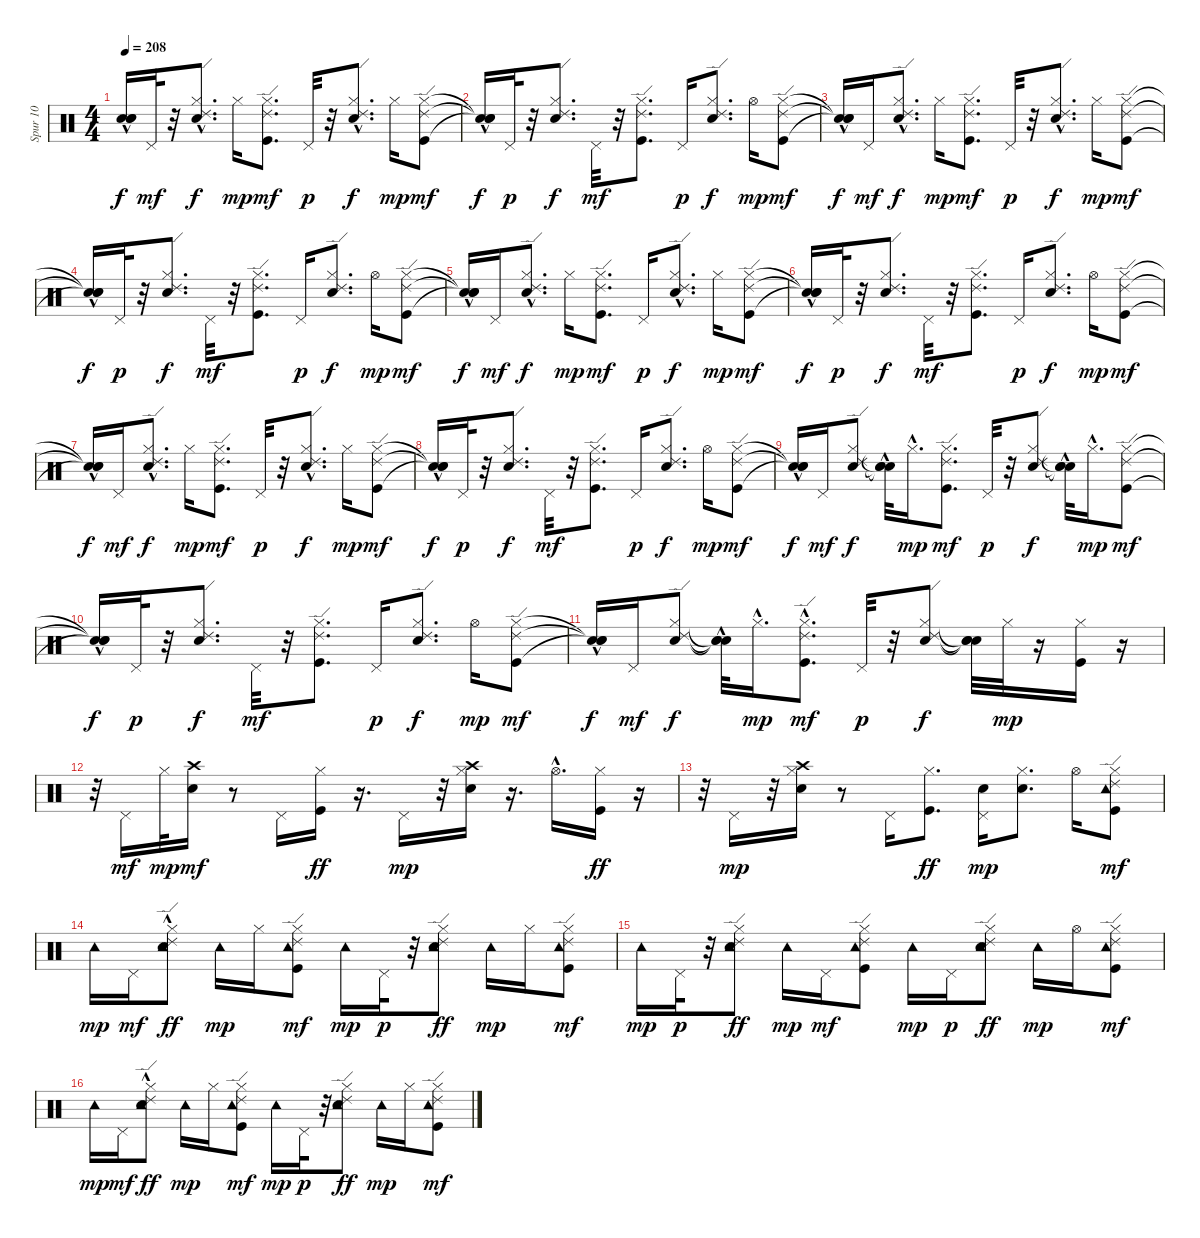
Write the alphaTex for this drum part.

\track ("Spur 10" "Spur 10") {instrument percussion}
\staff {score}
\articulation defaults
\ts (4 4)
\tempo 208
\clef neutral
\ks c
("Snare (hit)"{t} "Snare (hit)"{hac t} "Snare (hit)"{t}).16{dy f} "Pedal Hi-Hat (hit)".32{dy mf} r.32 ("Snare (hit) 2" "Hi-Hat (closed)"{hac} "Ride (edge) 2").8{d dy f} "Hi-Hat (closed)".16{dy mp} ("Hi-Hat (closed)" "Kick (hit)" "Ride (edge) 2").8{d dy mf} "Pedal Hi-Hat (hit)".32{dy p} r.32 ("Snare (hit) 2" "Hi-Hat (closed)"{hac} "Ride (edge) 2").8{d dy f} "Hi-Hat (closed)".16{dy mp} ("Hi-Hat (closed)" "Kick (hit)" "Ride (edge) 2").8{dy mf} |
("Snare (hit)"{t} "Snare (hit)"{hac t} "Snare (hit)"{t}).16{dy f} "Pedal Hi-Hat (hit)".32{dy p} r.32 ("Snare (hit) 2" "Hi-Hat (closed)" "Ride (edge) 2").8{d dy f} "Pedal Hi-Hat (hit)".32{dy mf} r.32 ("Hi-Hat (closed)" "Kick (hit)" "Ride (edge) 2").8{d} "Pedal Hi-Hat (hit)".16{dy p} ("Snare (hit) 2" "Hi-Hat (closed)" "Ride (edge) 2").8{d dy f} "Hi-Hat (open)".16{dy mp} ("Hi-Hat (closed)" "Kick (hit)" "Ride (edge) 2").8{dy mf} |
("Snare (hit)"{t} "Snare (hit)"{hac t} "Snare (hit)"{t}).16{dy f} "Pedal Hi-Hat (hit)".16{dy mf} ("Snare (hit) 2" "Hi-Hat (closed)"{hac} "Ride (edge) 2").8{d dy f} "Hi-Hat (closed)".16{dy mp} ("Hi-Hat (closed)" "Kick (hit)" "Ride (edge) 2").8{d dy mf} "Pedal Hi-Hat (hit)".32{dy p} r.32 ("Snare (hit) 2" "Hi-Hat (closed)"{hac} "Ride (edge) 2").8{d dy f} "Hi-Hat (closed)".16{dy mp} ("Hi-Hat (closed)" "Kick (hit)" "Ride (edge) 2").8{dy mf} |
("Snare (hit)"{t} "Snare (hit)"{hac t} "Snare (hit)"{t}).16{dy f} "Pedal Hi-Hat (hit)".32{dy p} r.32 ("Snare (hit) 2" "Hi-Hat (closed)" "Ride (edge) 2").8{d dy f} "Pedal Hi-Hat (hit)".32{dy mf} r.32 ("Hi-Hat (closed)" "Kick (hit)" "Ride (edge) 2").8{d} "Pedal Hi-Hat (hit)".16{dy p} ("Snare (hit) 2" "Hi-Hat (closed)" "Ride (edge) 2").8{d dy f} "Hi-Hat (open)".16{dy mp} ("Hi-Hat (closed)" "Kick (hit)" "Ride (edge) 2").8{dy mf} |
("Snare (hit)"{t} "Snare (hit)"{hac t} "Snare (hit)"{t}).16{dy f} "Pedal Hi-Hat (hit)".16{dy mf} ("Hi-Hat (closed)"{hac} "Snare (hit) 2" "Ride (edge) 2").8{d dy f} "Hi-Hat (closed)".16{dy mp} ("Hi-Hat (closed)" "Kick (hit)" "Ride (edge) 2").8{d dy mf} "Pedal Hi-Hat (hit)".16{dy p} ("Hi-Hat (closed)"{hac} "Snare (hit) 2" "Ride (edge) 2").8{d dy f} "Hi-Hat (closed)".16{dy mp} ("Hi-Hat (closed)" "Kick (hit)" "Ride (edge) 2").8{dy mf} |
("Snare (hit)"{t} "Snare (hit)"{hac t} "Snare (hit)"{t}).16{dy f} "Pedal Hi-Hat (hit)".32{dy p} r.32 ("Hi-Hat (closed)" "Snare (hit) 2" "Ride (edge) 2").8{d dy f} "Pedal Hi-Hat (hit)".32{dy mf} r.32 ("Hi-Hat (closed)" "Kick (hit)" "Ride (edge) 2").8{d} "Pedal Hi-Hat (hit)".16{dy p} ("Hi-Hat (closed)" "Snare (hit) 2" "Ride (edge) 2").8{d dy f} "Hi-Hat (open)".16{dy mp} ("Hi-Hat (closed)" "Kick (hit)" "Ride (edge) 2").8{dy mf} |
("Snare (hit)"{t} "Snare (hit)"{hac t} "Snare (hit)"{t}).16{dy f} "Pedal Hi-Hat (hit)".16{dy mf} ("Hi-Hat (closed)"{hac} "Snare (hit) 2" "Ride (edge) 2").8{d dy f} "Hi-Hat (closed)".16{dy mp} ("Hi-Hat (closed)" "Kick (hit)" "Ride (edge) 2").8{d dy mf} "Pedal Hi-Hat (hit)".32{dy p} r.32 ("Hi-Hat (closed)"{hac} "Snare (hit) 2" "Ride (edge) 2").8{d dy f} "Hi-Hat (closed)".16{dy mp} ("Hi-Hat (closed)" "Kick (hit)" "Ride (edge) 2").8{dy mf} |
("Snare (hit)"{t} "Snare (hit)"{hac t} "Snare (hit)"{t}).16{dy f} "Pedal Hi-Hat (hit)".32{dy p} r.32 ("Hi-Hat (closed)" "Snare (hit) 2" "Ride (edge) 2").8{d dy f} "Pedal Hi-Hat (hit)".32{dy mf} r.32 ("Hi-Hat (closed)" "Kick (hit)" "Ride (edge) 2").8{d} "Pedal Hi-Hat (hit)".16{dy p} ("Hi-Hat (closed)" "Snare (hit) 2" "Ride (edge) 2").8{d dy f} "Hi-Hat (open)".16{dy mp} ("Hi-Hat (closed)" "Kick (hit)" "Ride (edge) 2").8{dy mf} |
("Snare (hit)"{t} "Snare (hit)"{hac t} "Snare (hit)"{t}).16{dy f} "Pedal Hi-Hat (hit)".16{dy mf} ("Hi-Hat (closed)" "Snare (hit) 2" "Ride (edge) 2").8{dy f} ("Snare (hit)"{t} "Snare (hit)"{hac t} "Snare (hit)"{t}).32 "Hi-Hat (closed)"{hac}.16{d dy mp} ("Hi-Hat (closed)" "Kick (hit)" "Ride (edge) 2").8{d dy mf} "Pedal Hi-Hat (hit)".32{dy p} r.32 ("Hi-Hat (closed)" "Snare (hit) 2" "Ride (edge) 2").8{dy f} ("Snare (hit)"{t} "Snare (hit)"{hac t} "Snare (hit)"{t}).32 "Hi-Hat (closed)"{hac}.16{d dy mp} ("Hi-Hat (closed)" "Kick (hit)" "Ride (edge) 2").8{dy mf} |
("Snare (hit)"{t} "Snare (hit)"{hac t} "Snare (hit)"{t}).16{dy f} "Pedal Hi-Hat (hit)".32{dy p} r.32 ("Hi-Hat (closed)" "Snare (hit) 2" "Ride (edge) 2").8{d dy f} "Pedal Hi-Hat (hit)".32{dy mf} r.32 ("Hi-Hat (closed)" "Kick (hit)" "Ride (edge) 2").8{d} "Pedal Hi-Hat (hit)".16{dy p} ("Hi-Hat (closed)" "Snare (hit) 2" "Ride (edge) 2").8{d dy f} "Hi-Hat (open)".16{dy mp} ("Hi-Hat (closed)" "Kick (hit)" "Ride (edge) 2").8{dy mf} |
("Snare (hit)"{t} "Snare (hit)"{hac t} "Snare (hit)"{t}).16{dy f} "Pedal Hi-Hat (hit)".16{dy mf} ("Hi-Hat (closed)" "Snare (hit) 2" "Ride (edge) 2").8{dy f} ("Snare (hit)"{t} "Snare (hit)"{hac t} "Snare (hit)"{t}).32 "Hi-Hat (closed)"{hac}.16{d dy mp} ("Hi-Hat (closed)" "Kick (hit)"{hac} "Ride (edge) 2").8{d dy mf} "Pedal Hi-Hat (hit)".32{dy p} r.32 ("Hi-Hat (closed)" "Snare (hit) 2" "Ride (edge) 2").8{dy f} ("Snare (hit)"{t} "Snare (hit)"{t} "Snare (hit)"{t}).32 "Hi-Hat (closed)".32{dy mp} r.16 ("Kick (hit)" "Hi-Hat (closed)").16 r.16 |
r.32 "Pedal Hi-Hat (hit)".16{dy mf} "Hi-Hat (closed)".32{dy mp} ("Crash high (hit)" "Snare (hit) 2").16{dy mf} r.8 "Pedal Hi-Hat (hit)".16 ("Hi-Hat (closed)" "Kick (hit)").16{dy ff} r.16{d} "Pedal Hi-Hat (hit)".16{dy mp} r.32 ("Crash high (hit)" "Hi-Hat (closed)" "Snare (hit) 2").16 r.16{d} "Hi-Hat (open)"{hac}.16{d} ("Hi-Hat (closed)" "Kick (hit)").16{dy ff} r.16 |
r.32 "Pedal Hi-Hat (hit)".16{dy mp} r.32 ("Crash high (hit)" "Hi-Hat (closed)" "Snare (hit) 2").16 r.8 "Pedal Hi-Hat (hit)".16 ("Hi-Hat (closed)" "Kick (hit)").8{d dy ff} ("Pedal Hi-Hat (hit)" "Snare (hit) 2").16{dy mp} ("Hi-Hat (closed)" "Snare (hit) 2").8{d} "Hi-Hat (open)".16 ("Tambourine (hit)" "Hi-Hat (closed)" "Kick (hit)" "Ride (edge) 2").8{dy mf} |
"Tambourine (hit)".16{dy mp} "Pedal Hi-Hat (hit)".16{dy mf} ("Tambourine (hit)" "Hi-Hat (closed)"{hac} "Electric Snare (hit)" "Ride (edge) 2").8{dy ff} "Tambourine (hit)".16{dy mp} "Hi-Hat (closed)".16 ("Tambourine (hit)" "Hi-Hat (closed)" "Kick (hit)" "Ride (edge) 2").8{dy mf} "Tambourine (hit)".16{dy mp} "Pedal Hi-Hat (hit)".32{dy p} r.32 ("Tambourine (hit)" "Hi-Hat (closed)" "Electric Snare (hit)" "Ride (edge) 2").8{dy ff} "Tambourine (hit)".16{dy mp} "Hi-Hat (closed)".16 ("Tambourine (hit)" "Hi-Hat (closed)" "Kick (hit)" "Ride (edge) 2").8{dy mf} |
"Tambourine (hit)".16{dy mp} "Pedal Hi-Hat (hit)".32{dy p} r.32 ("Tambourine (hit)" "Hi-Hat (closed)" "Electric Snare (hit)" "Ride (edge) 2").8{dy ff} "Tambourine (hit)".16{dy mp} "Pedal Hi-Hat (hit)".16{dy mf} ("Tambourine (hit)" "Hi-Hat (closed)" "Kick (hit)" "Ride (edge) 2").8 "Tambourine (hit)".16{dy mp} "Pedal Hi-Hat (hit)".16{dy p} ("Tambourine (hit)" "Hi-Hat (closed)" "Electric Snare (hit)" "Ride (edge) 2").8{dy ff} "Tambourine (hit)".16{dy mp} "Hi-Hat (open)".16 ("Tambourine (hit)" "Hi-Hat (closed)" "Kick (hit)" "Ride (edge) 2").8{dy mf} |
"Tambourine (hit)".16{dy mp} "Pedal Hi-Hat (hit)".16{dy mf} ("Tambourine (hit)" "Hi-Hat (closed)"{hac} "Electric Snare (hit)" "Ride (edge) 2").8{dy ff} "Tambourine (hit)".16{dy mp} "Hi-Hat (closed)".16 ("Tambourine (hit)" "Hi-Hat (closed)" "Kick (hit)" "Ride (edge) 2").8{dy mf} "Tambourine (hit)".16{dy mp} "Pedal Hi-Hat (hit)".32{dy p} r.32 ("Tambourine (hit)" "Hi-Hat (closed)" "Electric Snare (hit)" "Ride (edge) 2").8{dy ff} "Tambourine (hit)".16{dy mp} "Hi-Hat (closed)".16 ("Tambourine (hit)" "Hi-Hat (closed)" "Kick (hit)" "Ride (edge) 2").8{dy mf}
